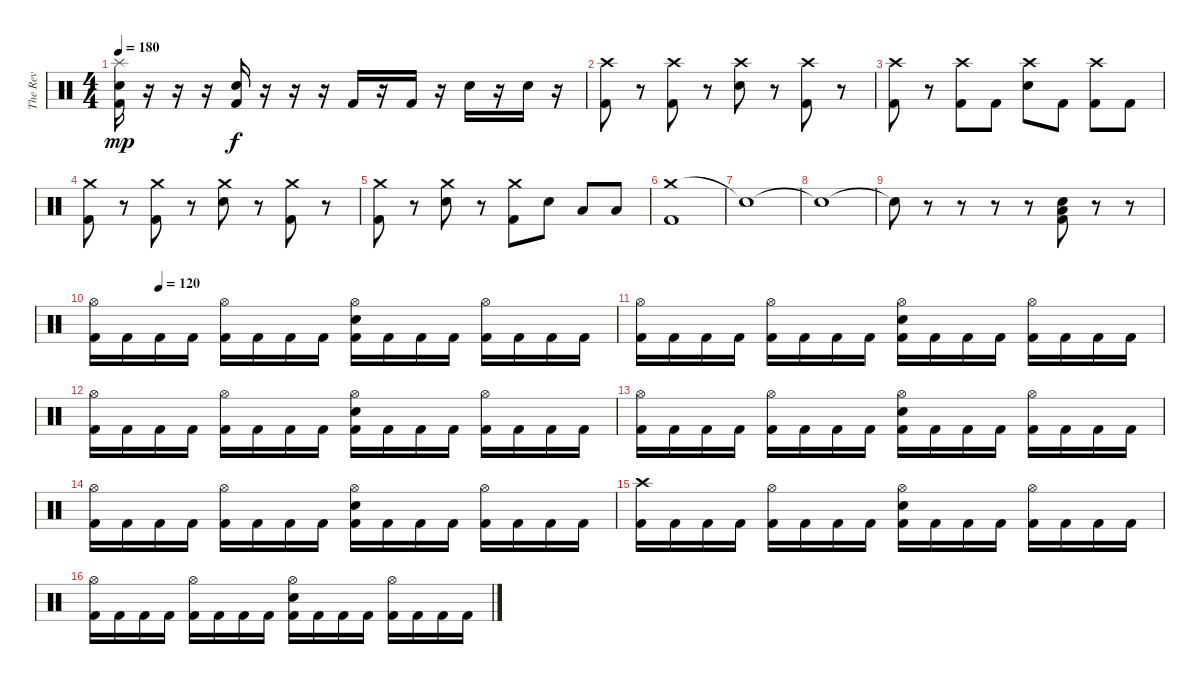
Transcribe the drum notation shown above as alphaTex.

\track ("The Rev" "The Rev") {instrument percussion}
\staff {score}
\articulation defaults
\ts (4 4)
\tempo 180
\clef neutral
\ks c
("Splash (hit)" "Snare (hit) 2" "Kick (hit) 2").16{dy mp} r.16 r.16 r.16 ("Snare (hit) 2" "Kick (hit) 2").16{dy f} r.16 r.16 r.16 "Kick (hit) 2".16 r.16 "Kick (hit) 2".16 r.16 "Snare (hit) 2".16 r.16 "Snare (hit) 2".16 r.16 |
("Crash high (hit)" "Kick (hit) 2").8 r.8 ("Crash high (hit)" "Kick (hit) 2").8 r.8 ("Crash high (hit)" "Snare (hit) 2").8 r.8 ("Crash high (hit)" "Kick (hit) 2").8 r.8 |
("Crash high (hit)" "Kick (hit) 2").8 r.8 ("Crash high (hit)" "Kick (hit) 2").8 "Kick (hit) 2".8 ("Crash high (hit)" "Snare (hit) 2").8 "Kick (hit) 2".8 ("Crash high (hit)" "Kick (hit) 2").8 "Kick (hit) 2".8 |
("Crash medium (hit)" "Kick (hit) 2").8 r.8 ("Crash medium (hit)" "Kick (hit) 2").8 r.8 ("Crash medium (hit)" "Snare (hit) 2").8 r.8 ("Crash medium (hit)" "Kick (hit) 2").8 r.8 |
("Crash medium (hit)" "Kick (hit) 2").8 r.8 ("Crash medium (hit)" "Snare (hit) 2").8 r.8 ("Crash medium (hit)" "Kick (hit) 2").8 "Snare (hit) 2".8 "Low Floor Tom (hit)".8 "Low Floor Tom (hit)".8 |
("Crash medium (hit)" "Kick (hit) 2").1 |
"Snare (hit)"{t}.1 |
"Snare (hit)"{t}.1 |
"Snare (hit)"{t}.8 r.8 r.8 r.8 r.8 ("Low Tom (hit)" "Snare (hit) 2" "Kick (hit) 2").8 r.8 r.8 |
\tempo (120 0.125)
("Hi-Hat (open)" "Kick (hit) 2").16 "Kick (hit) 2".16 "Kick (hit) 2".16 "Kick (hit) 2".16 ("Hi-Hat (open)" "Kick (hit) 2").16 "Kick (hit) 2".16 "Kick (hit) 2".16 "Kick (hit) 2".16 ("Hi-Hat (open)" "Snare (hit) 2" "Kick (hit) 2").16 "Kick (hit) 2".16 "Kick (hit) 2".16 "Kick (hit) 2".16 ("Hi-Hat (open)" "Kick (hit) 2").16 "Kick (hit) 2".16 "Kick (hit) 2".16 "Kick (hit) 2".16 |
("Hi-Hat (open)" "Kick (hit) 2").16 "Kick (hit) 2".16 "Kick (hit) 2".16 "Kick (hit) 2".16 ("Hi-Hat (open)" "Kick (hit) 2").16 "Kick (hit) 2".16 "Kick (hit) 2".16 "Kick (hit) 2".16 ("Hi-Hat (open)" "Snare (hit) 2" "Kick (hit) 2").16 "Kick (hit) 2".16 "Kick (hit) 2".16 "Kick (hit) 2".16 ("Hi-Hat (open)" "Kick (hit) 2").16 "Kick (hit) 2".16 "Kick (hit) 2".16 "Kick (hit) 2".16 |
("Hi-Hat (open)" "Kick (hit) 2").16 "Kick (hit) 2".16 "Kick (hit) 2".16 "Kick (hit) 2".16 ("Hi-Hat (open)" "Kick (hit) 2").16 "Kick (hit) 2".16 "Kick (hit) 2".16 "Kick (hit) 2".16 ("Hi-Hat (open)" "Snare (hit) 2" "Kick (hit) 2").16 "Kick (hit) 2".16 "Kick (hit) 2".16 "Kick (hit) 2".16 ("Hi-Hat (open)" "Kick (hit) 2").16 "Kick (hit) 2".16 "Kick (hit) 2".16 "Kick (hit) 2".16 |
("Hi-Hat (open)" "Kick (hit) 2").16 "Kick (hit) 2".16 "Kick (hit) 2".16 "Kick (hit) 2".16 ("Hi-Hat (open)" "Kick (hit) 2").16 "Kick (hit) 2".16 "Kick (hit) 2".16 "Kick (hit) 2".16 ("Hi-Hat (open)" "Snare (hit) 2" "Kick (hit) 2").16 "Kick (hit) 2".16 "Kick (hit) 2".16 "Kick (hit) 2".16 ("Hi-Hat (open)" "Kick (hit) 2").16 "Kick (hit) 2".16 "Kick (hit) 2".16 "Kick (hit) 2".16 |
("Hi-Hat (open)" "Kick (hit) 2").16 "Kick (hit) 2".16 "Kick (hit) 2".16 "Kick (hit) 2".16 ("Hi-Hat (open)" "Kick (hit) 2").16 "Kick (hit) 2".16 "Kick (hit) 2".16 "Kick (hit) 2".16 ("Hi-Hat (open)" "Snare (hit) 2" "Kick (hit) 2").16 "Kick (hit) 2".16 "Kick (hit) 2".16 "Kick (hit) 2".16 ("Hi-Hat (open)" "Kick (hit) 2").16 "Kick (hit) 2".16 "Kick (hit) 2".16 "Kick (hit) 2".16 |
("Crash high (hit)" "Kick (hit) 2").16 "Kick (hit) 2".16 "Kick (hit) 2".16 "Kick (hit) 2".16 ("Hi-Hat (open)" "Kick (hit) 2").16 "Kick (hit) 2".16 "Kick (hit) 2".16 "Kick (hit) 2".16 ("Hi-Hat (open)" "Snare (hit) 2" "Kick (hit) 2").16 "Kick (hit) 2".16 "Kick (hit) 2".16 "Kick (hit) 2".16 ("Hi-Hat (open)" "Kick (hit) 2").16 "Kick (hit) 2".16 "Kick (hit) 2".16 "Kick (hit) 2".16 |
("Hi-Hat (open)" "Kick (hit) 2").16 "Kick (hit) 2".16 "Kick (hit) 2".16 "Kick (hit) 2".16 ("Hi-Hat (open)" "Kick (hit) 2").16 "Kick (hit) 2".16 "Kick (hit) 2".16 "Kick (hit) 2".16 ("Hi-Hat (open)" "Snare (hit) 2" "Kick (hit) 2").16 "Kick (hit) 2".16 "Kick (hit) 2".16 "Kick (hit) 2".16 ("Hi-Hat (open)" "Kick (hit) 2").16 "Kick (hit) 2".16 "Kick (hit) 2".16 "Kick (hit) 2".16
